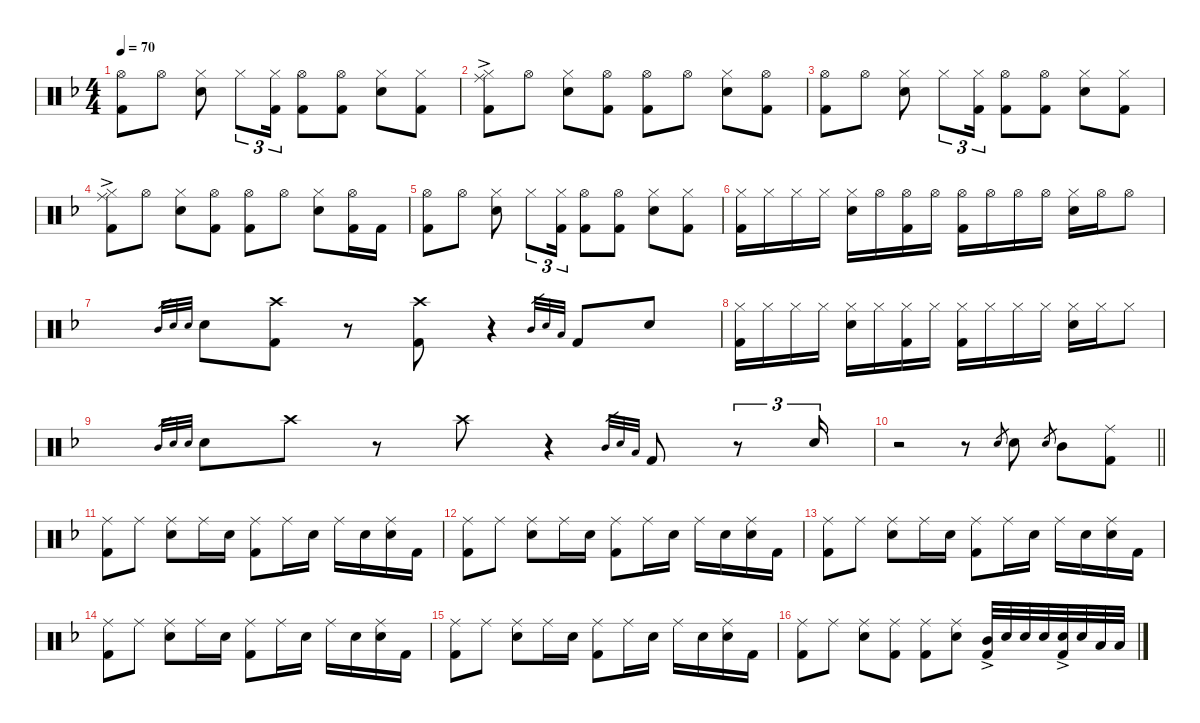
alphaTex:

\defaultSystemsLayout 4
\hideDynamics
\bracketExtendMode nobrackets
\singleTrackTrackNamePolicy hidden
\multiTrackTrackNamePolicy hidden
\otherSystemsTrackNameOrientation horizontal
\track ("Percussion" "drm.") {defaultSystemsLayout 4 instrument percussion}
\staff {score}
\articulation defaults
\ts (4 4)
\tempo 70
\clef neutral
\ks f
("Hi-Hat (open)"{acc forcenatural} "Kick (hit) 2"{acc forcenatural}).8{dy f beam Down} "Hi-Hat (open)"{acc forcenatural}.8{beam Down} ("Hi-Hat (closed)"{acc forcenatural} "Snare (hit) 2"{acc forcenatural}).8{beam Down} "Hi-Hat (closed)"{acc forcenatural}.8{tu (3 2) beam Down} ("Hi-Hat (closed)"{acc forcenatural} "Kick (hit) 2"{acc forcenatural}).16{tu (3 2) beam Down} ("Hi-Hat (open)"{acc forcenatural} "Kick (hit) 2"{acc forcenatural}).8{beam Down} ("Hi-Hat (open)"{acc forcenatural} "Kick (hit) 2"{acc forcenatural}).8{beam Down} ("Hi-Hat (closed)"{acc forcenatural} "Snare (hit) 2"{acc forcenatural}).8{beam Down} ("Hi-Hat (closed)"{acc forcenatural} "Kick (hit) 2"{acc forcenatural}).8{beam Down} |
("Hi-Hat (closed)"{ac acc forcenatural} "Kick (hit) 2"{acc forcenatural} "Ride (middle)"{acc forcenatural}).8{beam Down} "Hi-Hat (open)"{acc forcenatural}.8{beam Down} ("Hi-Hat (closed)"{acc forcenatural} "Snare (hit) 2"{acc forcenatural}).8{beam Down} ("Hi-Hat (open)"{acc forcenatural} "Kick (hit) 2"{acc forcenatural}).8{beam Down} ("Hi-Hat (open)"{acc forcenatural} "Kick (hit) 2"{acc forcenatural}).8{beam Down} "Hi-Hat (open)"{acc forcenatural}.8{beam Down} ("Hi-Hat (closed)"{acc forcenatural} "Snare (hit) 2"{acc forcenatural}).8{beam Down} ("Hi-Hat (open)"{acc forcenatural} "Kick (hit) 2"{acc forcenatural}).8{beam Down} |
("Hi-Hat (open)"{acc forcenatural} "Kick (hit) 2"{acc forcenatural}).8{beam Down} "Hi-Hat (open)"{acc forcenatural}.8{beam Down} ("Hi-Hat (closed)"{acc forcenatural} "Snare (hit) 2"{acc forcenatural}).8{beam Down} "Hi-Hat (closed)"{acc forcenatural}.8{tu (3 2) beam Down} ("Hi-Hat (closed)"{acc forcenatural} "Kick (hit) 2"{acc forcenatural}).16{tu (3 2) beam Down} ("Hi-Hat (open)"{acc forcenatural} "Kick (hit) 2"{acc forcenatural}).8{beam Down} ("Hi-Hat (open)"{acc forcenatural} "Kick (hit) 2"{acc forcenatural}).8{beam Down} ("Hi-Hat (closed)"{acc forcenatural} "Snare (hit) 2"{acc forcenatural}).8{beam Down} ("Hi-Hat (closed)"{acc forcenatural} "Kick (hit) 2"{acc forcenatural}).8{beam Down} |
("Hi-Hat (closed)"{ac acc forcenatural} "Kick (hit) 2"{acc forcenatural} "Ride (middle)"{acc forcenatural}).8{beam Down} "Hi-Hat (open)"{acc forcenatural}.8{beam Down} ("Hi-Hat (closed)"{acc forcenatural} "Snare (hit) 2"{acc forcenatural}).8{beam Down} ("Hi-Hat (open)"{acc forcenatural} "Kick (hit) 2"{acc forcenatural}).8{beam Down} ("Hi-Hat (open)"{acc forcenatural} "Kick (hit) 2"{acc forcenatural}).8{beam Down} "Hi-Hat (open)"{acc forcenatural}.8{beam Down} ("Hi-Hat (closed)"{acc forcenatural} "Snare (hit) 2"{acc forcenatural}).8{beam Down} ("Hi-Hat (open)"{acc forcenatural} "Kick (hit) 2"{acc forcenatural}).16{beam Down} "Kick (hit) 2"{acc forcenatural}.16{beam Down} |
("Hi-Hat (open)"{acc forcenatural} "Kick (hit) 2"{acc forcenatural}).8{beam Down} "Hi-Hat (open)"{acc forcenatural}.8{beam Down} ("Hi-Hat (closed)"{acc forcenatural} "Snare (hit) 2"{acc forcenatural}).8{beam Down} "Hi-Hat (closed)"{acc forcenatural}.8{tu (3 2) beam Down} ("Hi-Hat (closed)"{acc forcenatural} "Kick (hit) 2"{acc forcenatural}).16{tu (3 2) beam Down} ("Hi-Hat (open)"{acc forcenatural} "Kick (hit) 2"{acc forcenatural}).8{beam Down} ("Hi-Hat (open)"{acc forcenatural} "Kick (hit) 2"{acc forcenatural}).8{beam Down} ("Hi-Hat (closed)"{acc forcenatural} "Snare (hit) 2"{acc forcenatural}).8{beam Down} ("Hi-Hat (closed)"{acc forcenatural} "Kick (hit) 2"{acc forcenatural}).8{beam Down} |
("Hi-Hat (closed)"{acc forcenatural} "Kick (hit) 2"{acc forcenatural}).16{beam Down} "Hi-Hat (closed)"{acc forcenatural}.16{beam Down} "Hi-Hat (closed)"{acc forcenatural}.16{beam Down} "Hi-Hat (closed)"{acc forcenatural}.16{beam Down} ("Hi-Hat (closed)"{acc forcenatural} "Snare (hit) 2"{acc forcenatural}).16{beam Down} "Hi-Hat (open)"{acc forcenatural}.16{beam Down} ("Hi-Hat (open)"{acc forcenatural} "Kick (hit) 2"{acc forcenatural}).16{beam Down} "Hi-Hat (open)"{acc forcenatural}.16{beam Down} ("Hi-Hat (open)"{acc forcenatural} "Kick (hit) 2"{acc forcenatural}).16{beam Down} "Hi-Hat (open)"{acc forcenatural}.16{beam Down} "Hi-Hat (open)"{acc forcenatural}.16{beam Down} "Hi-Hat (open)"{acc forcenatural}.16{beam Down} ("Hi-Hat (closed)"{acc forcenatural} "Snare (hit) 2"{acc forcenatural}).16{beam Down} "Hi-Hat (open)"{acc forcenatural}.16{beam Down} "Hi-Hat (open)"{acc forcenatural}.8{beam Down} |
"Mid Tom (hit)"{acc forcenatural}.32{gr dy pp beam Up} "Snare (hit) 2"{acc forcenatural}.32{gr beam Up} "Snare (hit) 2"{acc forcenatural}.32{gr beam Up} "Snare (hit) 2"{acc forcenatural}.8{dy f beam Down} ("Crash high (hit)"{acc forcenatural} "Kick (hit) 2"{acc forcenatural}).8{beam Down} r.8{beam Down} ("Crash high (hit)"{acc forcenatural} "Kick (hit) 2"{acc forcenatural}).8{beam Down} r.4{beam Down} "Mid Tom (hit)"{acc forcenatural}.32{gr dy pp beam Up} "Snare (hit) 2"{acc forcenatural}.32{gr beam Up} "Low Tom (hit)"{acc forcenatural}.32{gr beam Up} "Kick (hit) 2"{acc forcenatural}.8{dy f beam Up} "Snare (hit) 2"{acc forcenatural}.8{beam Up} |
("Hi-Hat (closed)"{acc forcenatural} "Kick (hit) 2"{acc forcenatural}).16{beam Down} "Hi-Hat (closed)"{acc forcenatural}.16{beam Down} "Hi-Hat (closed)"{acc forcenatural}.16{beam Down} "Hi-Hat (closed)"{acc forcenatural}.16{beam Down} ("Hi-Hat (closed)"{acc forcenatural} "Snare (hit) 2"{acc forcenatural}).16{beam Down} "Hi-Hat (closed)"{acc forcenatural}.16{beam Down} ("Hi-Hat (closed)"{acc forcenatural} "Kick (hit) 2"{acc forcenatural}).16{beam Down} "Hi-Hat (closed)"{acc forcenatural}.16{beam Down} ("Hi-Hat (closed)"{acc forcenatural} "Kick (hit) 2"{acc forcenatural}).16{beam Down} "Hi-Hat (closed)"{acc forcenatural}.16{beam Down} "Hi-Hat (closed)"{acc forcenatural}.16{beam Down} "Hi-Hat (closed)"{acc forcenatural}.16{beam Down} ("Hi-Hat (closed)"{acc forcenatural} "Snare (hit) 2"{acc forcenatural}).16{beam Down} "Hi-Hat (closed)"{acc forcenatural}.16{beam Down} "Hi-Hat (closed)"{acc forcenatural}.8{beam Down} |
"Mid Tom (hit)"{acc forcenatural}.32{gr dy pp beam Up} "Snare (hit) 2"{acc forcenatural}.32{gr beam Up} "Snare (hit) 2"{acc forcenatural}.32{gr beam Up} "Snare (hit) 2"{acc forcenatural}.8{dy f beam Down} "Crash high (hit)"{acc forcenatural}.8{beam Down} r.8{beam Down} "Crash high (hit)"{acc forcenatural}.8{beam Down} r.4{beam Down} "Mid Tom (hit)"{acc forcenatural}.32{gr dy pp beam Up} "Snare (hit) 2"{acc forcenatural}.32{gr beam Up} "Low Tom (hit)"{acc forcenatural}.32{gr beam Up} "Kick (hit) 2"{acc forcenatural}.8{dy f beam Up} r.8{tu (3 2) beam Up} "Snare (hit) 2"{acc forcenatural}.16{tu (3 2) beam Down} |
\barLineRight lightlight
r.2{beam Down} r.8{beam Down} "Snare (hit) 2"{acc forcenatural}.8{gr dy p beam Up} "Snare (hit) 2"{acc forcenatural}.8{dy f beam Down} "Snare (hit) 2"{acc forcenatural}.8{gr dy p beam Up} "Mid Tom (hit)"{acc forcenatural}.8{dy f beam Down} ("Ride (middle)"{acc forcenatural} "Kick (hit) 2"{acc forcenatural}).8{beam Down} |
("Ride (middle)"{acc forcenatural} "Kick (hit) 2"{acc forcenatural}).8{beam Down} "Ride (middle)"{acc forcenatural}.8{beam Down} ("Ride (middle)"{acc forcenatural} "Snare (hit) 2"{acc forcenatural}).8{beam Down} "Ride (middle)"{acc forcenatural}.16{beam Down} "Snare (hit) 2"{acc forcenatural}.16{beam Down} ("Ride (middle)"{acc forcenatural} "Kick (hit) 2"{acc forcenatural}).8{beam Down} "Ride (middle)"{acc forcenatural}.16{beam Down} "Snare (hit) 2"{acc forcenatural}.16{beam Down} "Ride (middle)"{acc forcenatural}.16{beam Down} "Snare (hit) 2"{acc forcenatural}.16{beam Down} ("Snare (hit) 2"{acc forcenatural} "Ride (middle)"{acc forcenatural}).16{beam Down} "Kick (hit) 2"{acc forcenatural}.16{beam Down} |
("Ride (middle)"{acc forcenatural} "Kick (hit) 2"{acc forcenatural}).8{beam Down} "Ride (middle)"{acc forcenatural}.8{beam Down} ("Ride (middle)"{acc forcenatural} "Snare (hit) 2"{acc forcenatural}).8{beam Down} "Ride (middle)"{acc forcenatural}.16{beam Down} "Snare (hit) 2"{acc forcenatural}.16{beam Down} ("Ride (middle)"{acc forcenatural} "Kick (hit) 2"{acc forcenatural}).8{beam Down} "Ride (middle)"{acc forcenatural}.16{beam Down} "Snare (hit) 2"{acc forcenatural}.16{beam Down} "Ride (middle)"{acc forcenatural}.16{beam Down} "Snare (hit) 2"{acc forcenatural}.16{beam Down} ("Snare (hit) 2"{acc forcenatural} "Ride (middle)"{acc forcenatural}).16{beam Down} "Kick (hit) 2"{acc forcenatural}.16{beam Down} |
("Ride (middle)"{acc forcenatural} "Kick (hit) 2"{acc forcenatural}).8{beam Down} "Ride (middle)"{acc forcenatural}.8{beam Down} ("Ride (middle)"{acc forcenatural} "Snare (hit) 2"{acc forcenatural}).8{beam Down} "Ride (middle)"{acc forcenatural}.16{beam Down} "Snare (hit) 2"{acc forcenatural}.16{beam Down} ("Ride (middle)"{acc forcenatural} "Kick (hit) 2"{acc forcenatural}).8{beam Down} "Ride (middle)"{acc forcenatural}.16{beam Down} "Snare (hit) 2"{acc forcenatural}.16{beam Down} "Ride (middle)"{acc forcenatural}.16{beam Down} "Snare (hit) 2"{acc forcenatural}.16{beam Down} ("Snare (hit) 2"{acc forcenatural} "Ride (middle)"{acc forcenatural}).16{beam Down} "Kick (hit) 2"{acc forcenatural}.16{beam Down} |
("Ride (middle)"{acc forcenatural} "Kick (hit) 2"{acc forcenatural}).8{beam Down} "Ride (middle)"{acc forcenatural}.8{beam Down} ("Ride (middle)"{acc forcenatural} "Snare (hit) 2"{acc forcenatural}).8{beam Down} "Ride (middle)"{acc forcenatural}.16{beam Down} "Snare (hit) 2"{acc forcenatural}.16{beam Down} ("Ride (middle)"{acc forcenatural} "Kick (hit) 2"{acc forcenatural}).8{beam Down} "Ride (middle)"{acc forcenatural}.16{beam Down} "Snare (hit) 2"{acc forcenatural}.16{beam Down} "Ride (middle)"{acc forcenatural}.16{beam Down} "Snare (hit) 2"{acc forcenatural}.16{beam Down} ("Snare (hit) 2"{acc forcenatural} "Ride (middle)"{acc forcenatural}).16{beam Down} "Kick (hit) 2"{acc forcenatural}.16{beam Down} |
("Ride (middle)"{acc forcenatural} "Kick (hit) 2"{acc forcenatural}).8{beam Down} "Ride (middle)"{acc forcenatural}.8{beam Down} ("Ride (middle)"{acc forcenatural} "Snare (hit) 2"{acc forcenatural}).8{beam Down} "Ride (middle)"{acc forcenatural}.16{beam Down} "Snare (hit) 2"{acc forcenatural}.16{beam Down} ("Ride (middle)"{acc forcenatural} "Kick (hit) 2"{acc forcenatural}).8{beam Down} "Ride (middle)"{acc forcenatural}.16{beam Down} "Snare (hit) 2"{acc forcenatural}.16{beam Down} "Ride (middle)"{acc forcenatural}.16{beam Down} "Snare (hit) 2"{acc forcenatural}.16{beam Down} ("Snare (hit) 2"{acc forcenatural} "Ride (middle)"{acc forcenatural}).16{beam Down} "Kick (hit) 2"{acc forcenatural}.16{beam Down} |
("Ride (middle)"{acc forcenatural} "Kick (hit) 2"{acc forcenatural}).8{beam Down} "Ride (middle)"{acc forcenatural}.8{beam Down} ("Ride (middle)"{acc forcenatural} "Snare (hit) 2"{acc forcenatural}).8{beam Down} ("Ride (middle)"{acc forcenatural} "Kick (hit) 2"{acc forcenatural}).8{beam Down} ("Ride (middle)"{acc forcenatural} "Kick (hit) 2"{acc forcenatural}).8{beam Down} ("Ride (middle)"{acc forcenatural} "Snare (hit) 2"{acc forcenatural}).8{beam Down} ("Mid Tom (hit)"{ac acc forcenatural} "Kick (hit) 2"{acc forcenatural}).32{beam Up} "Snare (hit) 2"{acc forcenatural}.32{beam Up} "Snare (hit) 2"{acc forcenatural}.32{beam Up} "Snare (hit) 2"{acc forcenatural}.32{beam Up} ("Snare (hit) 2"{ac acc forcenatural} "Kick (hit) 2"{acc forcenatural}).32{beam Up} "Snare (hit) 2"{acc forcenatural}.32{beam Up} "Low Tom (hit)"{acc forcenatural}.32{beam Up} "Low Tom (hit)"{acc forcenatural}.32{beam Up}
